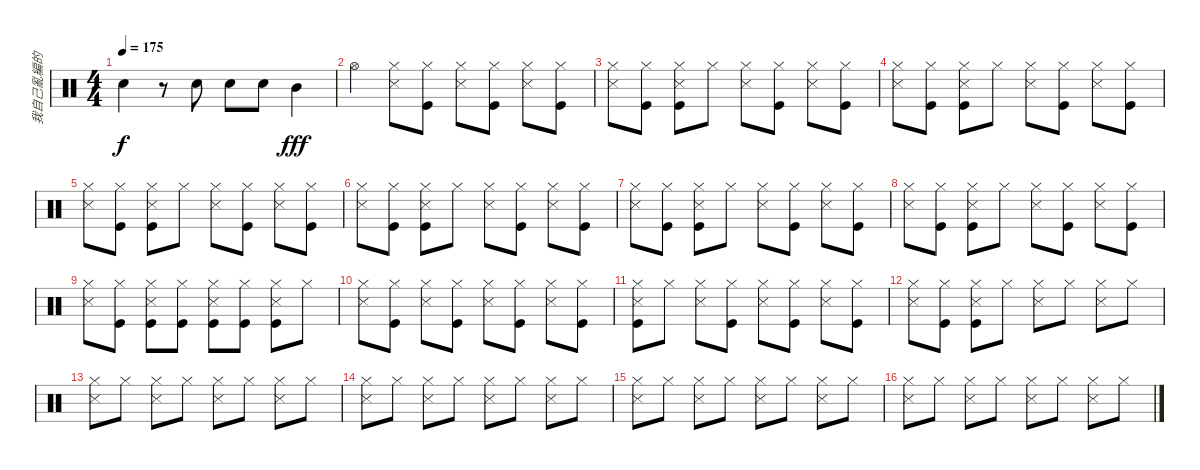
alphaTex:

\track ("我自己亂編的" "我自己亂編的") {instrument percussion}
\staff {score}
\articulation defaults
\ts (4 4)
\tempo 175
\clef neutral
\ks c "Electric Snare (hit)".4{dy f}
r.8 "Electric Snare (hit)".8 "Electric Snare (hit)".8 "Electric Snare (hit)".8 "Mid Tom (hit)".4{dy fff} |
"Hi-Hat (open)".4 ("Hi-Hat (closed)" "Snare (side stick) 3").8 ("Hi-Hat (closed)" "Kick (hit)").8 ("Hi-Hat (closed)" "Snare (side stick) 3").8 ("Hi-Hat (closed)" "Kick (hit)").8 ("Hi-Hat (closed)" "Snare (side stick) 3").8 ("Hi-Hat (closed)" "Kick (hit)").8 |
("Snare (side stick) 3" "Hi-Hat (closed)").8 ("Hi-Hat (closed)" "Kick (hit)").8 ("Hi-Hat (closed)" "Snare (side stick) 3" "Kick (hit)").8 "Hi-Hat (closed)".8 ("Hi-Hat (closed)" "Snare (side stick) 3").8 ("Hi-Hat (closed)" "Kick (hit)").8 ("Hi-Hat (closed)" "Snare (side stick) 3").8 ("Hi-Hat (closed)" "Kick (hit)").8 |
("Snare (side stick) 3" "Hi-Hat (closed)").8 ("Hi-Hat (closed)" "Kick (hit)").8 ("Hi-Hat (closed)" "Snare (side stick) 3" "Kick (hit)").8 "Hi-Hat (closed)".8 ("Hi-Hat (closed)" "Snare (side stick) 3").8 ("Hi-Hat (closed)" "Kick (hit)").8 ("Hi-Hat (closed)" "Snare (side stick) 3").8 ("Hi-Hat (closed)" "Kick (hit)").8 |
("Snare (side stick) 3" "Hi-Hat (closed)").8 ("Hi-Hat (closed)" "Kick (hit)").8 ("Hi-Hat (closed)" "Snare (side stick) 3" "Kick (hit)").8 "Hi-Hat (closed)".8 ("Hi-Hat (closed)" "Snare (side stick) 3").8 ("Hi-Hat (closed)" "Kick (hit)").8 ("Hi-Hat (closed)" "Snare (side stick) 3").8 ("Hi-Hat (closed)" "Kick (hit)").8 |
("Snare (side stick) 3" "Hi-Hat (closed)").8 ("Hi-Hat (closed)" "Kick (hit)").8 ("Hi-Hat (closed)" "Snare (side stick) 3" "Kick (hit)").8 "Hi-Hat (closed)".8 ("Hi-Hat (closed)" "Snare (side stick) 3").8 ("Hi-Hat (closed)" "Kick (hit)").8 ("Hi-Hat (closed)" "Snare (side stick) 3").8 ("Hi-Hat (closed)" "Kick (hit)").8 |
("Snare (side stick) 3" "Hi-Hat (closed)").8 ("Hi-Hat (closed)" "Kick (hit)").8 ("Hi-Hat (closed)" "Snare (side stick) 3" "Kick (hit)").8 "Hi-Hat (closed)".8 ("Hi-Hat (closed)" "Snare (side stick) 3").8 ("Hi-Hat (closed)" "Kick (hit)").8 ("Hi-Hat (closed)" "Snare (side stick) 3").8 ("Hi-Hat (closed)" "Kick (hit)").8 |
("Snare (side stick) 3" "Hi-Hat (closed)").8 ("Hi-Hat (closed)" "Kick (hit)").8 ("Hi-Hat (closed)" "Snare (side stick) 3" "Kick (hit)").8 "Hi-Hat (closed)".8 ("Hi-Hat (closed)" "Snare (side stick) 3").8 ("Hi-Hat (closed)" "Kick (hit)").8 ("Hi-Hat (closed)" "Snare (side stick) 3").8 ("Hi-Hat (closed)" "Kick (hit)").8 |
("Snare (side stick) 3" "Hi-Hat (closed)").8 ("Hi-Hat (closed)" "Kick (hit)").8 ("Hi-Hat (closed)" "Snare (side stick) 3" "Kick (hit)").8 ("Hi-Hat (closed)" "Kick (hit)").8 ("Hi-Hat (closed)" "Snare (side stick) 3" "Kick (hit)").8 ("Hi-Hat (closed)" "Kick (hit)").8 ("Hi-Hat (closed)" "Snare (side stick) 3" "Kick (hit)").8 "Hi-Hat (closed)".8 |
("Snare (side stick) 3" "Hi-Hat (closed)").8 ("Hi-Hat (closed)" "Kick (hit)").8 ("Hi-Hat (closed)" "Snare (side stick) 3").8 ("Hi-Hat (closed)" "Kick (hit)").8 ("Hi-Hat (closed)" "Snare (side stick) 3").8 ("Hi-Hat (closed)" "Kick (hit)").8 ("Hi-Hat (closed)" "Snare (side stick) 3").8 ("Hi-Hat (closed)" "Kick (hit)").8 |
("Snare (side stick) 3" "Hi-Hat (closed)" "Kick (hit)").8 "Hi-Hat (closed)".8 ("Hi-Hat (closed)" "Snare (side stick) 3").8 ("Hi-Hat (closed)" "Kick (hit)").8 ("Hi-Hat (closed)" "Snare (side stick) 3").8 ("Hi-Hat (closed)" "Kick (hit)").8 ("Hi-Hat (closed)" "Snare (side stick) 3").8 ("Hi-Hat (closed)" "Kick (hit)").8 |
("Snare (side stick) 3" "Hi-Hat (closed)").8 ("Hi-Hat (closed)" "Kick (hit)").8 ("Hi-Hat (closed)" "Snare (side stick) 3" "Kick (hit)").8 "Hi-Hat (closed)".8 ("Hi-Hat (closed)" "Snare (side stick) 3").8 "Hi-Hat (closed)".8 ("Hi-Hat (closed)" "Snare (side stick) 3").8 "Hi-Hat (closed)".8 |
("Snare (side stick) 3" "Hi-Hat (closed)").8 "Hi-Hat (closed)".8 ("Hi-Hat (closed)" "Snare (side stick) 3").8 "Hi-Hat (closed)".8 ("Hi-Hat (closed)" "Snare (side stick) 3").8 "Hi-Hat (closed)".8 ("Hi-Hat (closed)" "Snare (side stick) 3").8 "Hi-Hat (closed)".8 |
("Snare (side stick) 3" "Hi-Hat (closed)").8 "Hi-Hat (closed)".8 ("Hi-Hat (closed)" "Snare (side stick) 3").8 "Hi-Hat (closed)".8 ("Hi-Hat (closed)" "Snare (side stick) 3").8 "Hi-Hat (closed)".8 ("Hi-Hat (closed)" "Snare (side stick) 3").8 "Hi-Hat (closed)".8 |
("Snare (side stick) 3" "Hi-Hat (closed)").8 "Hi-Hat (closed)".8 ("Hi-Hat (closed)" "Snare (side stick) 3").8 "Hi-Hat (closed)".8 ("Hi-Hat (closed)" "Snare (side stick) 3").8 "Hi-Hat (closed)".8 ("Hi-Hat (closed)" "Snare (side stick) 3").8 "Hi-Hat (closed)".8 |
("Snare (side stick) 3" "Hi-Hat (closed)").8 "Hi-Hat (closed)".8 ("Hi-Hat (closed)" "Snare (side stick) 3").8 "Hi-Hat (closed)".8 ("Hi-Hat (closed)" "Snare (side stick) 3").8 "Hi-Hat (closed)".8 ("Hi-Hat (closed)" "Snare (side stick) 3").8 "Hi-Hat (closed)".8
